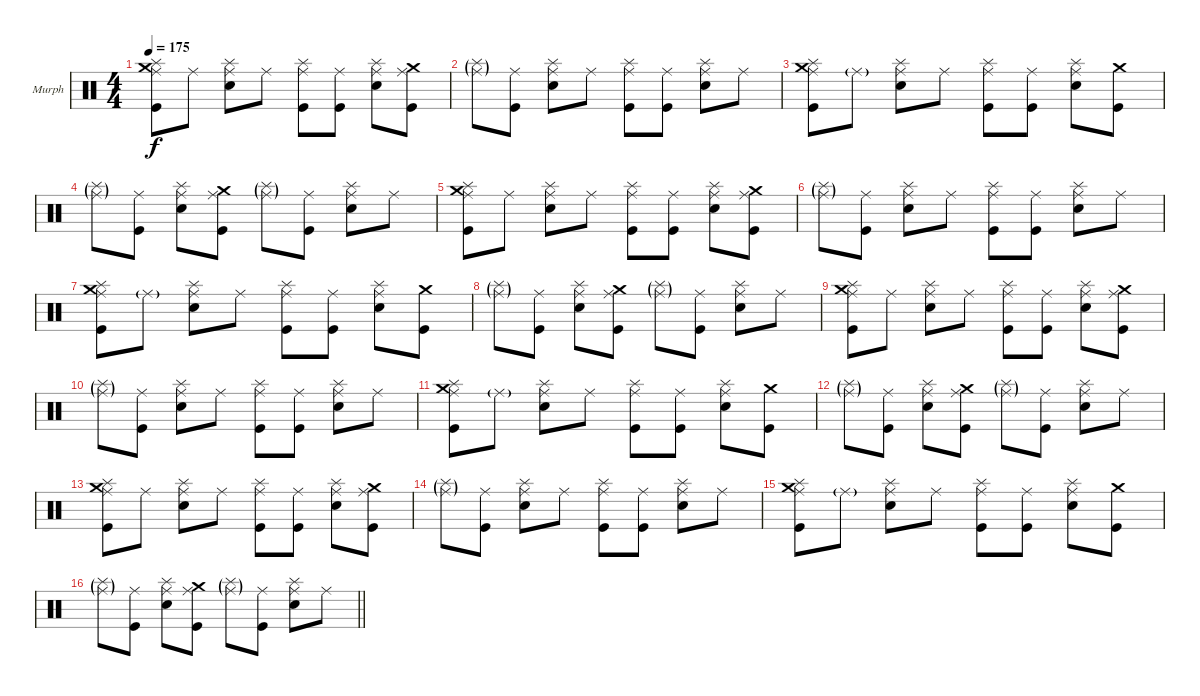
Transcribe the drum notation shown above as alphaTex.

\defaultSystemsLayout 4
\bracketExtendMode groupsimilarinstruments
\firstSystemTrackNameOrientation horizontal
\otherSystemsTrackNameOrientation horizontal
\track ("Murph" "Murph") {instrument percussion}
\staff {score}
\articulation defaults
\ts (4 4)
\tempo 175
\clef neutral
\scale
0.333333
\ks c
("Kick (hit)" "Ride (middle)" "Splash (hit)" "Crash medium (hit)").8{dy f} "Ride (middle)".8 ("Snare (hit) 2" "Ride (middle)" "Splash (hit)").8 "Ride (middle)".8 ("Kick (hit)" "Ride (middle)" "Splash (hit)").8 ("Kick (hit)" "Ride (middle)").8 ("Snare (hit) 2" "Ride (middle)" "Splash (hit)").8 ("Kick (hit)" "Ride (middle)" "Crash medium (hit)").8 |
\scale
0.333333 ("Ride (middle)"{g} "Splash (hit)"{g}).8 ("Kick (hit)" "Ride (middle)").8 ("Snare (hit) 2" "Ride (middle)" "Splash (hit)").8 "Ride (middle)".8 ("Kick (hit)" "Ride (middle)" "Splash (hit)").8 ("Kick (hit)" "Ride (middle)").8 ("Snare (hit) 2" "Ride (middle)" "Splash (hit)").8 "Ride (middle)".8 |
\scale
0.333333 ("Kick (hit)" "Ride (middle)" "Splash (hit)" "Crash medium (hit)").8 "Ride (middle)"{g}.8 ("Snare (hit) 2" "Ride (middle)" "Splash (hit)").8 "Ride (middle)".8 ("Kick (hit)" "Ride (middle)" "Splash (hit)").8 ("Kick (hit)" "Ride (middle)").8 ("Snare (hit) 2" "Ride (middle)" "Splash (hit)").8 ("Kick (hit)" "Crash medium (hit)").8 |
\scale
0.333333 ("Ride (middle)"{g} "Splash (hit)"{g}).8 ("Kick (hit)" "Ride (middle)").8 ("Snare (hit) 2" "Ride (middle)" "Splash (hit)").8 ("Kick (hit)" "Ride (middle)" "Crash medium (hit)").8 ("Ride (middle)"{g} "Splash (hit)"{g}).8 ("Kick (hit)" "Ride (middle)").8 ("Snare (hit) 2" "Ride (middle)" "Splash (hit)").8 "Ride (middle)".8 |
\scale
0.333333 ("Kick (hit)" "Ride (middle)" "Splash (hit)" "Crash medium (hit)").8 "Ride (middle)".8 ("Snare (hit) 2" "Ride (middle)" "Splash (hit)").8 "Ride (middle)".8 ("Kick (hit)" "Ride (middle)" "Splash (hit)").8 ("Kick (hit)" "Ride (middle)").8 ("Snare (hit) 2" "Ride (middle)" "Splash (hit)").8 ("Kick (hit)" "Ride (middle)" "Crash medium (hit)").8 |
\scale
0.333333 ("Ride (middle)"{g} "Splash (hit)"{g}).8 ("Kick (hit)" "Ride (middle)").8 ("Snare (hit) 2" "Ride (middle)" "Splash (hit)").8 "Ride (middle)".8 ("Kick (hit)" "Ride (middle)" "Splash (hit)").8 ("Kick (hit)" "Ride (middle)").8 ("Snare (hit) 2" "Ride (middle)" "Splash (hit)").8 "Ride (middle)".8 |
\scale
0.333333 ("Kick (hit)" "Ride (middle)" "Splash (hit)" "Crash medium (hit)").8 "Ride (middle)"{g}.8 ("Snare (hit) 2" "Ride (middle)" "Splash (hit)").8 "Ride (middle)".8 ("Kick (hit)" "Ride (middle)" "Splash (hit)").8 ("Kick (hit)" "Ride (middle)").8 ("Snare (hit) 2" "Ride (middle)" "Splash (hit)").8 ("Kick (hit)" "Crash medium (hit)").8 |
\scale
0.333333 ("Ride (middle)"{g} "Splash (hit)"{g}).8 ("Kick (hit)" "Ride (middle)").8 ("Snare (hit) 2" "Ride (middle)" "Splash (hit)").8 ("Kick (hit)" "Ride (middle)" "Crash medium (hit)").8 ("Ride (middle)"{g} "Splash (hit)"{g}).8 ("Kick (hit)" "Ride (middle)").8 ("Snare (hit) 2" "Ride (middle)" "Splash (hit)").8 "Ride (middle)".8 |
\scale
0.333333 ("Kick (hit)" "Ride (middle)" "Splash (hit)" "Crash medium (hit)").8 "Ride (middle)".8 ("Snare (hit) 2" "Ride (middle)" "Splash (hit)").8 "Ride (middle)".8 ("Kick (hit)" "Ride (middle)" "Splash (hit)").8 ("Kick (hit)" "Ride (middle)").8 ("Snare (hit) 2" "Ride (middle)" "Splash (hit)").8 ("Kick (hit)" "Ride (middle)" "Crash medium (hit)").8 |
\scale
0.333333 ("Ride (middle)"{g} "Splash (hit)"{g}).8 ("Kick (hit)" "Ride (middle)").8 ("Snare (hit) 2" "Ride (middle)" "Splash (hit)").8 "Ride (middle)".8 ("Kick (hit)" "Ride (middle)" "Splash (hit)").8 ("Kick (hit)" "Ride (middle)").8 ("Snare (hit) 2" "Ride (middle)" "Splash (hit)").8 "Ride (middle)".8 |
\scale
0.333333 ("Kick (hit)" "Ride (middle)" "Splash (hit)" "Crash medium (hit)").8 "Ride (middle)"{g}.8 ("Snare (hit) 2" "Ride (middle)" "Splash (hit)").8 "Ride (middle)".8 ("Kick (hit)" "Ride (middle)" "Splash (hit)").8 ("Kick (hit)" "Ride (middle)").8 ("Snare (hit) 2" "Ride (middle)" "Splash (hit)").8 ("Kick (hit)" "Crash medium (hit)").8 |
\scale
0.333333 ("Ride (middle)"{g} "Splash (hit)"{g}).8 ("Kick (hit)" "Ride (middle)").8 ("Snare (hit) 2" "Ride (middle)" "Splash (hit)").8 ("Kick (hit)" "Ride (middle)" "Crash medium (hit)").8 ("Ride (middle)"{g} "Splash (hit)"{g}).8 ("Kick (hit)" "Ride (middle)").8 ("Snare (hit) 2" "Ride (middle)" "Splash (hit)").8 "Ride (middle)".8 |
\scale
0.333333 ("Kick (hit)" "Ride (middle)" "Splash (hit)" "Crash medium (hit)").8 "Ride (middle)".8 ("Snare (hit) 2" "Ride (middle)" "Splash (hit)").8 "Ride (middle)".8 ("Kick (hit)" "Ride (middle)" "Splash (hit)").8 ("Kick (hit)" "Ride (middle)").8 ("Snare (hit) 2" "Ride (middle)" "Splash (hit)").8 ("Kick (hit)" "Ride (middle)" "Crash medium (hit)").8 |
\scale
0.333333 ("Ride (middle)"{g} "Splash (hit)"{g}).8 ("Kick (hit)" "Ride (middle)").8 ("Snare (hit) 2" "Ride (middle)" "Splash (hit)").8 "Ride (middle)".8 ("Kick (hit)" "Ride (middle)" "Splash (hit)").8 ("Kick (hit)" "Ride (middle)").8 ("Snare (hit) 2" "Ride (middle)" "Splash (hit)").8 "Ride (middle)".8 |
\scale
0.333333 ("Kick (hit)" "Ride (middle)" "Splash (hit)" "Crash medium (hit)").8 "Ride (middle)"{g}.8 ("Snare (hit) 2" "Ride (middle)" "Splash (hit)").8 "Ride (middle)".8 ("Kick (hit)" "Ride (middle)" "Splash (hit)").8 ("Kick (hit)" "Ride (middle)").8 ("Snare (hit) 2" "Ride (middle)" "Splash (hit)").8 ("Kick (hit)" "Crash medium (hit)").8 |
\scale
0.333333
\barLineRight lightlight
("Ride (middle)"{g} "Splash (hit)"{g}).8 ("Kick (hit)" "Ride (middle)").8 ("Snare (hit) 2" "Ride (middle)" "Splash (hit)").8 ("Kick (hit)" "Ride (middle)" "Crash medium (hit)").8 ("Ride (middle)"{g} "Splash (hit)"{g}).8 ("Kick (hit)" "Ride (middle)").8 ("Snare (hit) 2" "Ride (middle)" "Splash (hit)").8 "Ride (middle)".8
